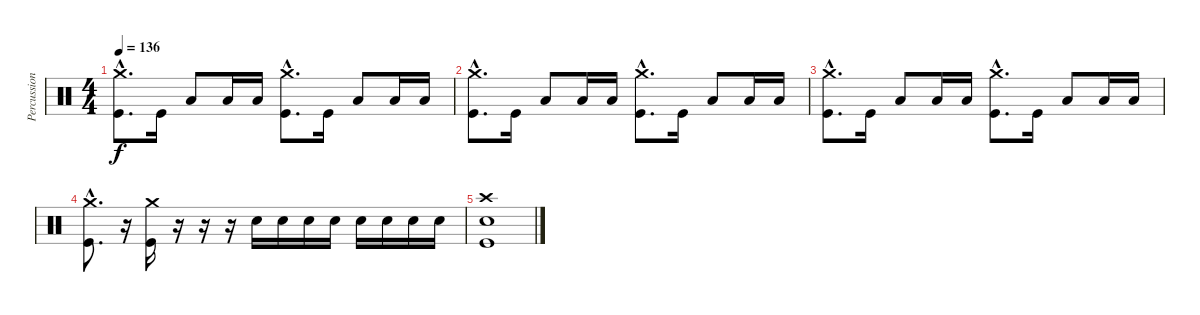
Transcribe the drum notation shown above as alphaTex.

\track ("Percussion IV" "Percussion") {instrument percussion}
\staff {score}
\articulation defaults
\ts (4 4)
\tempo 136
\clef neutral
\ks c
("Crash medium (hit)"{hac} "Kick (hit)"{hac}).8{d dy f} "Kick (hit)".16 "Low Floor Tom (hit)".8 "Low Floor Tom (hit)".16 "Low Floor Tom (hit)".16 ("Crash medium (hit)"{hac} "Kick (hit)"{hac}).8{d} "Kick (hit)".16 "Low Floor Tom (hit)".8 "Low Floor Tom (hit)".16 "Low Floor Tom (hit)".16 |
("Crash medium (hit)"{hac} "Kick (hit)"{hac}).8{d} "Kick (hit)".16 "Low Floor Tom (hit)".8 "Low Floor Tom (hit)".16 "Low Floor Tom (hit)".16 ("Crash medium (hit)"{hac} "Kick (hit)"{hac}).8{d} "Kick (hit)".16 "Low Floor Tom (hit)".8 "Low Floor Tom (hit)".16 "Low Floor Tom (hit)".16 |
("Crash medium (hit)"{hac} "Kick (hit)"{hac}).8{d} "Kick (hit)".16 "Low Floor Tom (hit)".8 "Low Floor Tom (hit)".16 "Low Floor Tom (hit)".16 ("Crash medium (hit)"{hac} "Kick (hit)"{hac}).8{d} "Kick (hit)".16 "Low Floor Tom (hit)".8 "Low Floor Tom (hit)".16 "Low Floor Tom (hit)".16 |
("Crash medium (hit)"{hac} "Kick (hit)"{hac}).8{d} r.16 ("Crash medium (hit)" "Kick (hit)").16 r.16 r.16 r.16 "Electric Snare (hit)".16 "Electric Snare (hit)".16 "Electric Snare (hit)".16 "Electric Snare (hit)".16 "Electric Snare (hit)".16 "Electric Snare (hit)".16 "Electric Snare (hit)".16 "Electric Snare (hit)".16 |
("Crash high (hit)" "Electric Snare (hit)" "Kick (hit)").1
